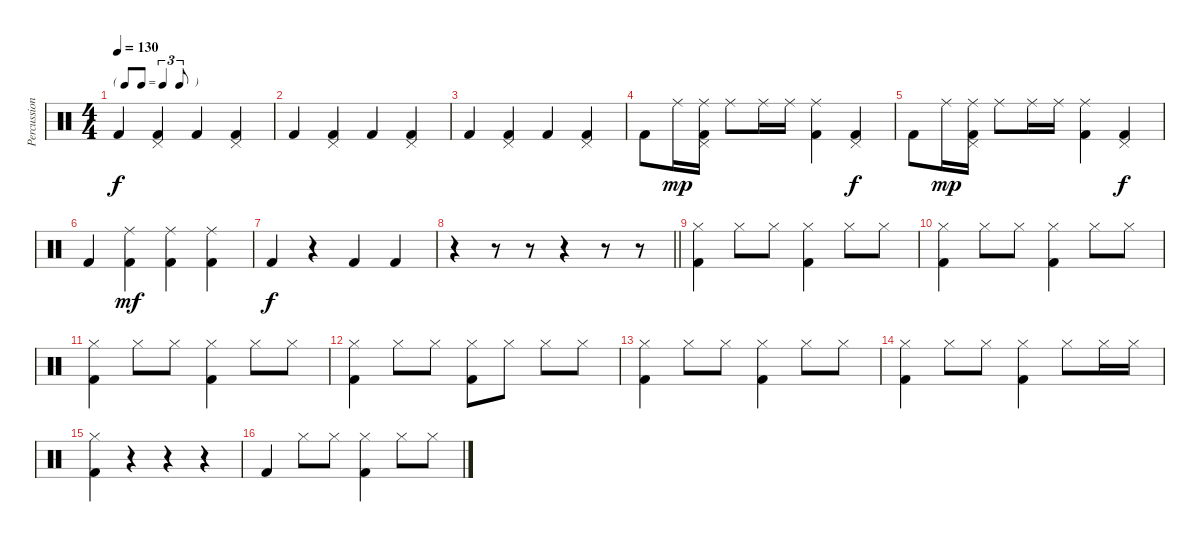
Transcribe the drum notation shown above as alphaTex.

\track ("Percussion" "Percussion") {instrument percussion}
\staff {score}
\articulation defaults
\ts (4 4)
\tf triplet8th
\tempo 130
\clef neutral
\ks c "Kick (hit) 2".4{dy f}
("Pedal Hi-Hat (hit)" "Kick (hit) 2").4 "Kick (hit) 2".4 ("Pedal Hi-Hat (hit)" "Kick (hit) 2").4 |
"Kick (hit) 2".4 ("Pedal Hi-Hat (hit)" "Kick (hit) 2").4 "Kick (hit) 2".4 ("Pedal Hi-Hat (hit)" "Kick (hit) 2").4 |
"Kick (hit) 2".4 ("Pedal Hi-Hat (hit)" "Kick (hit) 2").4 "Kick (hit) 2".4 ("Pedal Hi-Hat (hit)" "Kick (hit) 2").4 |
"Kick (hit) 2".8 "Ride (middle)".16{dy mp} ("Ride (middle)" "Kick (hit) 2" "Pedal Hi-Hat (hit)").16 "Ride (middle)".8 "Ride (middle)".16 "Ride (middle)".16 ("Ride (middle)" "Kick (hit) 2").4 ("Kick (hit) 2" "Pedal Hi-Hat (hit)").4{dy f} |
"Kick (hit) 2".8 "Ride (middle)".16{dy mp} ("Ride (middle)" "Kick (hit) 2" "Pedal Hi-Hat (hit)").16 "Ride (middle)".8 "Ride (middle)".16 "Ride (middle)".16 ("Ride (middle)" "Kick (hit) 2").4 ("Kick (hit) 2" "Pedal Hi-Hat (hit)").4{dy f} |
"Kick (hit) 2".4 ("Ride (middle)" "Kick (hit) 2").4{dy mf} ("Ride (middle)" "Kick (hit) 2").4 ("Ride (middle)" "Kick (hit) 2").4 |
"Kick (hit) 2".4{dy f} r.4 "Kick (hit) 2".4 "Kick (hit) 2".4 |
\barLineRight lightlight
r.4 r.8 r.8 r.4 r.8 r.8 |
("Hi-Hat (closed)" "Kick (hit) 2").4 "Hi-Hat (closed)".8 "Hi-Hat (closed)".8 ("Hi-Hat (closed)" "Kick (hit) 2").4 "Hi-Hat (closed)".8 "Hi-Hat (closed)".8 |
("Hi-Hat (closed)" "Kick (hit) 2").4 "Hi-Hat (closed)".8 "Hi-Hat (closed)".8 ("Hi-Hat (closed)" "Kick (hit) 2").4 "Hi-Hat (closed)".8 "Hi-Hat (closed)".8 |
("Hi-Hat (closed)" "Kick (hit) 2").4 "Hi-Hat (closed)".8 "Hi-Hat (closed)".8 ("Hi-Hat (closed)" "Kick (hit) 2").4 "Hi-Hat (closed)".8 "Hi-Hat (closed)".8 |
("Hi-Hat (closed)" "Kick (hit) 2").4 "Hi-Hat (closed)".8 "Hi-Hat (closed)".8 ("Hi-Hat (closed)" "Kick (hit) 2").8 "Hi-Hat (closed)".8 "Hi-Hat (closed)".8 "Hi-Hat (closed)".8 |
("Hi-Hat (closed)" "Kick (hit) 2").4 "Hi-Hat (closed)".8 "Hi-Hat (closed)".8 ("Hi-Hat (closed)" "Kick (hit) 2").4 "Hi-Hat (closed)".8 "Hi-Hat (closed)".8 |
("Hi-Hat (closed)" "Kick (hit) 2").4 "Hi-Hat (closed)".8 "Hi-Hat (closed)".8 ("Hi-Hat (closed)" "Kick (hit) 2").4 "Hi-Hat (closed)".8 "Hi-Hat (closed)".16 "Hi-Hat (closed)".16 |
("Hi-Hat (closed)" "Kick (hit) 2").4 r.4 r.4 r.4 |
"Kick (hit) 2".4 "Hi-Hat (closed)".8 "Hi-Hat (closed)".8 ("Hi-Hat (closed)" "Kick (hit) 2").4 "Hi-Hat (closed)".8 "Hi-Hat (closed)".8
